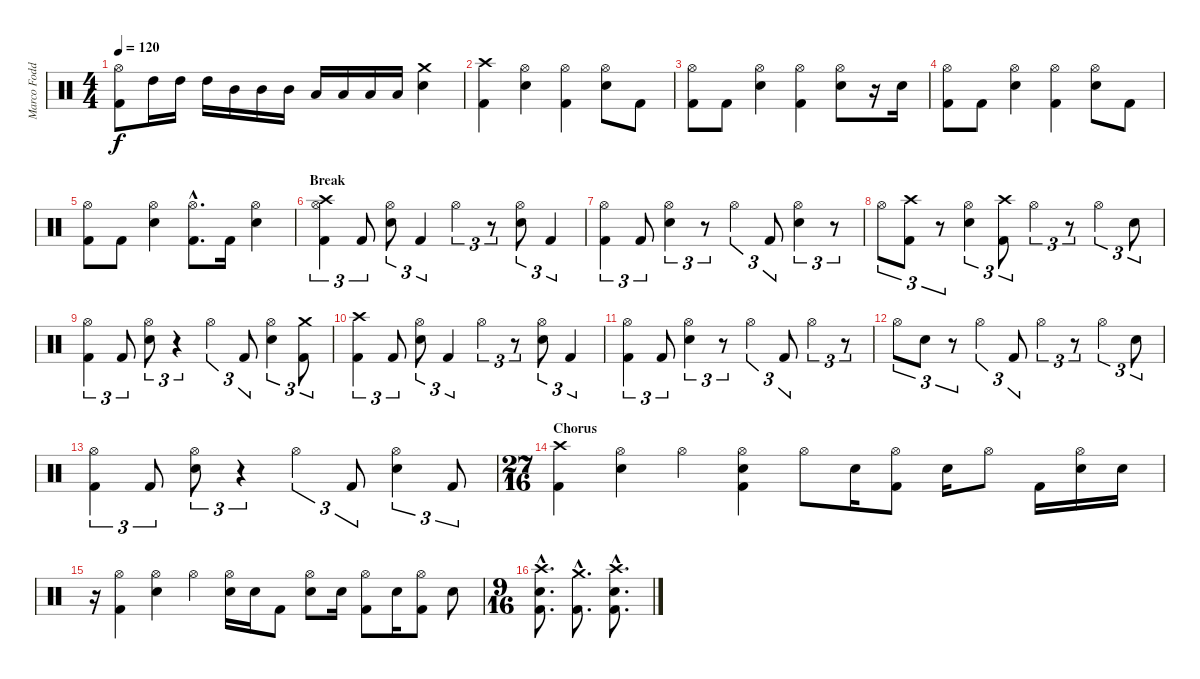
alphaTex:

\track ("Marco Foddis " "Marco Fodd") {instrument percussion}
\staff {score}
\articulation defaults
\ts (4 4)
\tempo 120
\clef neutral
\ks c
("Hi-Hat (open)" "Kick (hit) 2").8{dy f} "High Tom (hit)".16 "High Tom (hit)".16 "High Tom (hit)".16 "Mid Tom (hit)".16 "Mid Tom (hit)".16 "Mid Tom (hit)".16 "Low Tom (hit)".16 "Low Tom (hit)".16 "Low Tom (hit)".16 "Low Tom (hit)".16 ("Crash medium (hit)" "Electric Snare (hit)").4 |
("Crash high (hit)" "Kick (hit) 2").4 ("Hi-Hat (open)" "Electric Snare (hit)").4 ("Hi-Hat (open)" "Kick (hit) 2").4 ("Hi-Hat (open)" "Electric Snare (hit)").8 "Kick (hit) 2".8 |
("Hi-Hat (open)" "Kick (hit) 2").8 "Kick (hit) 2".8 ("Hi-Hat (open)" "Electric Snare (hit)").4 ("Hi-Hat (open)" "Kick (hit) 2").4 ("Hi-Hat (open)" "Electric Snare (hit)").8 r.16 "Electric Snare (hit)".16 |
("Hi-Hat (open)" "Kick (hit) 2").8 "Kick (hit) 2".8 ("Hi-Hat (open)" "Electric Snare (hit)").4 ("Hi-Hat (open)" "Kick (hit) 2").4 ("Hi-Hat (open)" "Electric Snare (hit)").8 "Kick (hit) 2".8 |
("Hi-Hat (open)" "Kick (hit) 2").8 "Kick (hit) 2".8 ("Hi-Hat (open)" "Electric Snare (hit)").4 ("Hi-Hat (open)"{hac} "Kick (hit) 2"{hac}).8{d} "Kick (hit) 2".16 ("Hi-Hat (open)" "Electric Snare (hit)").4 |
\section ("" "Break")
("Crash high (hit)" "Hi-Hat (open)" "Kick (hit) 2").4{tu (3 2)} "Kick (hit) 2".8{tu (3 2)} ("Hi-Hat (open)" "Electric Snare (hit)").8{tu (3 2)} "Kick (hit) 2".4{tu (3 2)} "Hi-Hat (open)".4{tu (3 2)} r.8{tu (3 2)} ("Hi-Hat (open)" "Electric Snare (hit)").8{tu (3 2)} "Kick (hit) 2".4{tu (3 2)} |
("Hi-Hat (open)" "Kick (hit) 2").4{tu (3 2)} "Kick (hit) 2".8{tu (3 2)} ("Hi-Hat (open)" "Electric Snare (hit)").4{tu (3 2)} r.8{tu (3 2)} "Hi-Hat (open)".4{tu (3 2)} "Kick (hit) 2".8{tu (3 2)} ("Hi-Hat (open)" "Electric Snare (hit)").4{tu (3 2)} r.8{tu (3 2)} |
"Hi-Hat (open)".8{tu (3 2)} ("Crash high (hit)" "Kick (hit) 2").8{tu (3 2)} r.8{tu (3 2)} ("Hi-Hat (open)" "Electric Snare (hit)").4{tu (3 2)} ("Crash high (hit)" "Kick (hit) 2").8{tu (3 2)} "Hi-Hat (open)".4{tu (3 2)} r.8{tu (3 2)} "Hi-Hat (open)".4{tu (3 2)} "Electric Snare (hit)".8{tu (3 2)} |
("Hi-Hat (open)" "Kick (hit) 2").4{tu (3 2)} "Kick (hit) 2".8{tu (3 2)} ("Hi-Hat (open)" "Electric Snare (hit)").8{tu (3 2)} r.4{tu (3 2)} "Hi-Hat (open)".4{tu (3 2)} "Kick (hit) 2".8{tu (3 2)} ("Hi-Hat (open)" "Electric Snare (hit)").4{tu (3 2)} ("Crash medium (hit)" "Kick (hit) 2").8{tu (3 2)} |
("Crash high (hit)" "Kick (hit) 2").4{tu (3 2)} "Kick (hit) 2".8{tu (3 2)} ("Hi-Hat (open)" "Electric Snare (hit)").8{tu (3 2)} "Kick (hit) 2".4{tu (3 2)} "Hi-Hat (open)".4{tu (3 2)} r.8{tu (3 2)} ("Hi-Hat (open)" "Electric Snare (hit)").8{tu (3 2)} "Kick (hit) 2".4{tu (3 2)} |
("Hi-Hat (open)" "Kick (hit) 2").4{tu (3 2)} "Kick (hit) 2".8{tu (3 2)} ("Hi-Hat (open)" "Electric Snare (hit)").4{tu (3 2)} r.8{tu (3 2)} "Hi-Hat (open)".4{tu (3 2)} "Kick (hit) 2".8{tu (3 2)} "Hi-Hat (open)".4{tu (3 2)} r.8{tu (3 2)} |
"Hi-Hat (open)".8{tu (3 2)} "Electric Snare (hit)".8{tu (3 2)} r.8{tu (3 2)} "Hi-Hat (open)".4{tu (3 2)} "Kick (hit) 2".8{tu (3 2)} "Hi-Hat (open)".4{tu (3 2)} r.8{tu (3 2)} "Hi-Hat (open)".4{tu (3 2)} "Electric Snare (hit)".8{tu (3 2)} |
("Hi-Hat (open)" "Kick (hit) 2").4{tu (3 2)} "Kick (hit) 2".8{tu (3 2)} ("Hi-Hat (open)" "Electric Snare (hit)").8{tu (3 2)} r.4{tu (3 2)} "Hi-Hat (open)".4{tu (3 2)} "Kick (hit) 2".8{tu (3 2)} ("Hi-Hat (open)" "Electric Snare (hit)").4{tu (3 2)} "Kick (hit) 2".8{tu (3 2)} |
\ts (27 16)
\section ("" "Chorus")
("Crash high (hit)" "Kick (hit) 2").4 ("Hi-Hat (open)" "Electric Snare (hit)").4 "Hi-Hat (open)".4 ("Hi-Hat (open)" "Electric Snare (hit)" "Kick (hit) 2").4 "Hi-Hat (open)".8 "Electric Snare (hit)".16 ("Hi-Hat (open)" "Kick (hit) 2").8 "Electric Snare (hit)".16 "Hi-Hat (open)".8 "Kick (hit) 2".16 ("Hi-Hat (open)" "Electric Snare (hit)").16 "Electric Snare (hit)".16 |
r.16 ("Hi-Hat (open)" "Kick (hit) 2").4 ("Hi-Hat (open)" "Electric Snare (hit)").4 "Hi-Hat (open)".4 ("Hi-Hat (open)" "Electric Snare (hit)").16 "Electric Snare (hit)".16 "Kick (hit) 2".8 ("Hi-Hat (open)" "Electric Snare (hit)").8 "Electric Snare (hit)".16 ("Hi-Hat (open)" "Kick (hit) 2").8 "Electric Snare (hit)".16 ("Hi-Hat (open)" "Kick (hit) 2").8 "Electric Snare (hit)".8 |
\ts (9 16)
("Crash high (hit)"{hac} "Electric Snare (hit)"{hac} "Kick (hit) 2"{hac}).8{d} ("Crash medium (hit)"{hac} "Kick (hit) 2"{hac}).8{d} ("Crash high (hit)"{hac} "Electric Snare (hit)"{hac} "Kick (hit) 2"{hac}).8{d}
